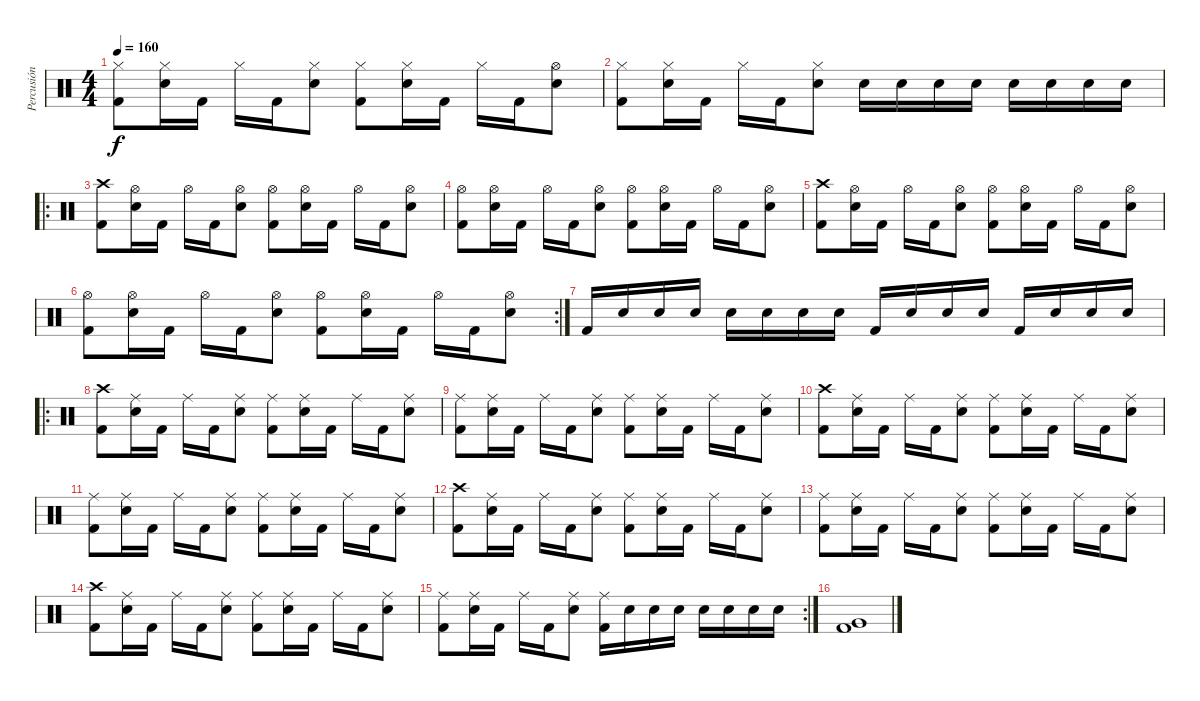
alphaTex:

\track ("Percusión" "Percusión") {instrument percussion}
\staff {score}
\articulation defaults
\ts (4 4)
\tempo 160
\clef neutral
\ks c
("Hi-Hat (closed)" "Kick (hit) 2").8{dy f} ("Hi-Hat (closed)" "Electric Snare (hit)").16 "Kick (hit) 2".16 "Hi-Hat (closed)".16 "Kick (hit) 2".16 ("Hi-Hat (closed)" "Electric Snare (hit)").8 ("Hi-Hat (closed)" "Kick (hit) 2").8 ("Hi-Hat (closed)" "Electric Snare (hit)").16 "Kick (hit) 2".16 "Hi-Hat (closed)".16 "Kick (hit) 2".16 ("Hi-Hat (open)" "Electric Snare (hit)").8 |
("Hi-Hat (closed)" "Kick (hit) 2").8 ("Hi-Hat (closed)" "Electric Snare (hit)").16 "Kick (hit) 2".16 "Hi-Hat (closed)".16 "Kick (hit) 2".16 ("Hi-Hat (closed)" "Electric Snare (hit)").8 "Electric Snare (hit)".16 "Electric Snare (hit)".16 "Electric Snare (hit)".16 "Electric Snare (hit)".16 "Electric Snare (hit)".16 "Electric Snare (hit)".16 "Electric Snare (hit)".16 "Electric Snare (hit)".16 |
\ro
("Crash high (hit)" "Kick (hit) 2").8 ("Hi-Hat (open)" "Electric Snare (hit)").16 "Kick (hit) 2".16 "Hi-Hat (open)".16 "Kick (hit) 2".16 ("Hi-Hat (open)" "Electric Snare (hit)").8 ("Hi-Hat (open)" "Kick (hit) 2").8 ("Hi-Hat (open)" "Electric Snare (hit)").16 "Kick (hit) 2".16 "Hi-Hat (open)".16 "Kick (hit) 2".16 ("Hi-Hat (open)" "Electric Snare (hit)").8 |
("Hi-Hat (open)" "Kick (hit) 2").8 ("Hi-Hat (open)" "Electric Snare (hit)").16 "Kick (hit) 2".16 "Hi-Hat (open)".16 "Kick (hit) 2".16 ("Hi-Hat (open)" "Electric Snare (hit)").8 ("Hi-Hat (open)" "Kick (hit) 2").8 ("Hi-Hat (open)" "Electric Snare (hit)").16 "Kick (hit) 2".16 "Hi-Hat (open)".16 "Kick (hit) 2".16 ("Hi-Hat (open)" "Electric Snare (hit)").8 |
("Crash high (hit)" "Kick (hit) 2").8 ("Hi-Hat (open)" "Electric Snare (hit)").16 "Kick (hit) 2".16 "Hi-Hat (open)".16 "Kick (hit) 2".16 ("Hi-Hat (open)" "Electric Snare (hit)").8 ("Hi-Hat (open)" "Kick (hit) 2").8 ("Hi-Hat (open)" "Electric Snare (hit)").16 "Kick (hit) 2".16 "Hi-Hat (open)".16 "Kick (hit) 2".16 ("Hi-Hat (open)" "Electric Snare (hit)").8 |
\rc 2
("Hi-Hat (open)" "Kick (hit) 2").8 ("Hi-Hat (open)" "Electric Snare (hit)").16 "Kick (hit) 2".16 "Hi-Hat (open)".16 "Kick (hit) 2".16 ("Hi-Hat (open)" "Electric Snare (hit)").8 ("Hi-Hat (open)" "Kick (hit) 2").8 ("Hi-Hat (open)" "Electric Snare (hit)").16 "Kick (hit) 2".16 "Hi-Hat (open)".16 "Kick (hit) 2".16 ("Hi-Hat (open)" "Electric Snare (hit)").8 |
"Kick (hit) 2".16 "Electric Snare (hit)".16 "Electric Snare (hit)".16 "Electric Snare (hit)".16 "Electric Snare (hit)".16 "Electric Snare (hit)".16 "Electric Snare (hit)".16 "Electric Snare (hit)".16 "Kick (hit) 2".16 "Electric Snare (hit)".16 "Electric Snare (hit)".16 "Electric Snare (hit)".16 "Kick (hit) 2".16 "Electric Snare (hit)".16 "Electric Snare (hit)".16 "Electric Snare (hit)".16 |
\ro
("Crash high (hit)" "Kick (hit) 2").8 ("Ride (middle)" "Electric Snare (hit)").16 "Kick (hit) 2".16 "Ride (middle)".16 "Kick (hit) 2".16 ("Ride (middle)" "Electric Snare (hit)").8 ("Ride (middle)" "Kick (hit) 2").8 ("Ride (middle)" "Electric Snare (hit)").16 "Kick (hit) 2".16 "Ride (middle)".16 "Kick (hit) 2".16 ("Ride (middle)" "Electric Snare (hit)").8 |
("Ride (middle)" "Kick (hit) 2").8 ("Ride (middle)" "Electric Snare (hit)").16 "Kick (hit) 2".16 "Ride (middle)".16 "Kick (hit) 2".16 ("Ride (middle)" "Electric Snare (hit)").8 ("Ride (middle)" "Kick (hit) 2").8 ("Ride (middle)" "Electric Snare (hit)").16 "Kick (hit) 2".16 "Ride (middle)".16 "Kick (hit) 2".16 ("Ride (middle)" "Electric Snare (hit)").8 |
("Crash high (hit)" "Kick (hit) 2").8 ("Ride (middle)" "Electric Snare (hit)").16 "Kick (hit) 2".16 "Ride (middle)".16 "Kick (hit) 2".16 ("Ride (middle)" "Electric Snare (hit)").8 ("Ride (middle)" "Kick (hit) 2").8 ("Ride (middle)" "Electric Snare (hit)").16 "Kick (hit) 2".16 "Ride (middle)".16 "Kick (hit) 2".16 ("Ride (middle)" "Electric Snare (hit)").8 |
("Ride (middle)" "Kick (hit) 2").8 ("Ride (middle)" "Electric Snare (hit)").16 "Kick (hit) 2".16 "Ride (middle)".16 "Kick (hit) 2".16 ("Ride (middle)" "Electric Snare (hit)").8 ("Ride (middle)" "Kick (hit) 2").8 ("Ride (middle)" "Electric Snare (hit)").16 "Kick (hit) 2".16 "Ride (middle)".16 "Kick (hit) 2".16 ("Ride (middle)" "Electric Snare (hit)").8 |
("Crash high (hit)" "Kick (hit) 2").8 ("Ride (middle)" "Electric Snare (hit)").16 "Kick (hit) 2".16 "Ride (middle)".16 "Kick (hit) 2".16 ("Ride (middle)" "Electric Snare (hit)").8 ("Ride (middle)" "Kick (hit) 2").8 ("Ride (middle)" "Electric Snare (hit)").16 "Kick (hit) 2".16 "Ride (middle)".16 "Kick (hit) 2".16 ("Ride (middle)" "Electric Snare (hit)").8 |
("Ride (middle)" "Kick (hit) 2").8 ("Ride (middle)" "Electric Snare (hit)").16 "Kick (hit) 2".16 "Ride (middle)".16 "Kick (hit) 2".16 ("Ride (middle)" "Electric Snare (hit)").8 ("Ride (middle)" "Kick (hit) 2").8 ("Ride (middle)" "Electric Snare (hit)").16 "Kick (hit) 2".16 "Ride (middle)".16 "Kick (hit) 2".16 ("Ride (middle)" "Electric Snare (hit)").8 |
("Crash high (hit)" "Kick (hit) 2").8 ("Ride (middle)" "Electric Snare (hit)").16 "Kick (hit) 2".16 "Ride (middle)".16 "Kick (hit) 2".16 ("Ride (middle)" "Electric Snare (hit)").8 ("Ride (middle)" "Kick (hit) 2").8 ("Ride (middle)" "Electric Snare (hit)").16 "Kick (hit) 2".16 "Ride (middle)".16 "Kick (hit) 2".16 ("Ride (middle)" "Electric Snare (hit)").8 |
\rc 2
("Ride (middle)" "Kick (hit) 2").8 ("Ride (middle)" "Electric Snare (hit)").16 "Kick (hit) 2".16 "Ride (middle)".16 "Kick (hit) 2".16 ("Ride (middle)" "Electric Snare (hit)").8 ("Ride (middle)" "Kick (hit) 2").16 "Electric Snare (hit)".16 "Electric Snare (hit)".16 "Electric Snare (hit)".16 "Electric Snare (hit)".16 "Electric Snare (hit)".16 "Electric Snare (hit)".16 "Electric Snare (hit)".16 |
("Very Low Tom (hit)" "Kick (hit) 2").1
